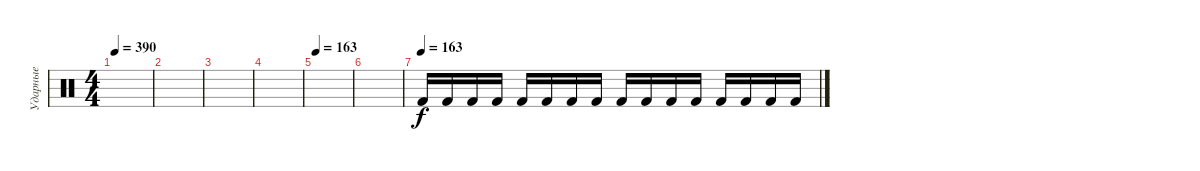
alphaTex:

\track ("Ударные" "Ударные") {instrument percussion}
\staff {score}
\articulation defaults
\ts (4 4)
\tempo 390
\clef neutral
\ks c
|
|
|
|
\tempo 163
|
|
\tempo (163)
"Kick (hit) 2".16 "Kick (hit) 2".16 "Kick (hit) 2".16 "Kick (hit) 2".16 "Kick (hit) 2".16 "Kick (hit) 2".16 "Kick (hit) 2".16 "Kick (hit) 2".16 "Kick (hit) 2".16 "Kick (hit) 2".16 "Kick (hit) 2".16 "Kick (hit) 2".16 "Kick (hit) 2".16 "Kick (hit) 2".16 "Kick (hit) 2".16 "Kick (hit) 2".16
